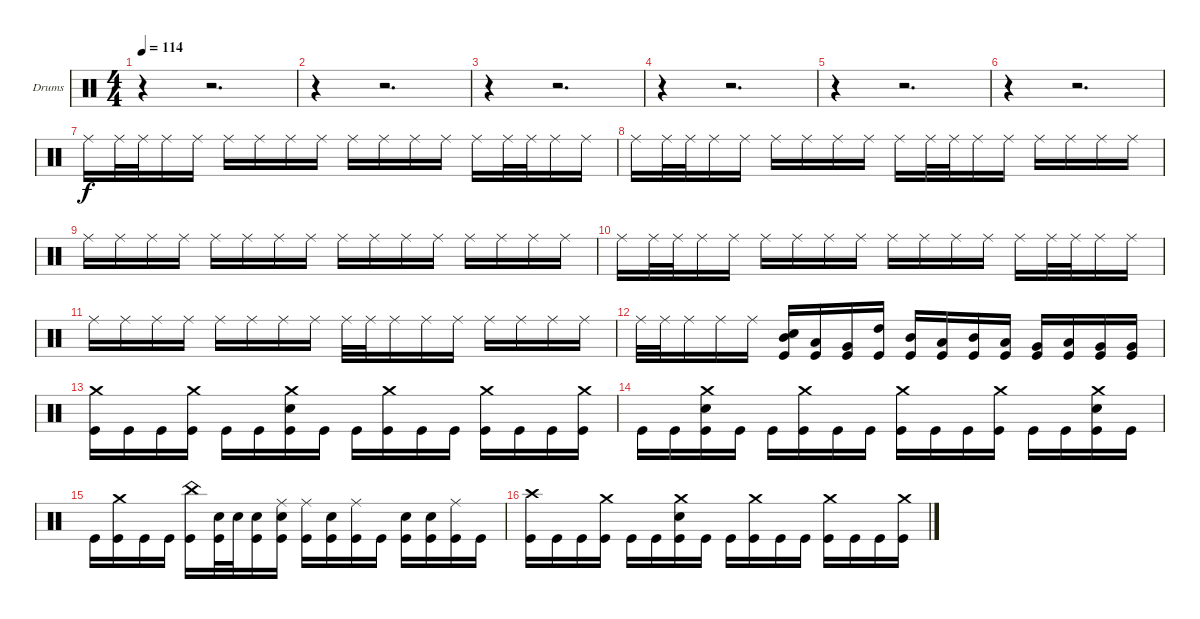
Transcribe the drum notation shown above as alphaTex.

\bracketExtendMode groupsimilarinstruments
\firstSystemTrackNameOrientation horizontal
\otherSystemsTrackNameOrientation horizontal
\track ("Drumkit" "Drums") {instrument percussion}
\staff {score}
\articulation defaults
\ts (4 4)
\tempo 114
\clef neutral
\ks c
r.4{dy f} r.2{d} |
r.4 r.2{d} |
r.4 r.2{d} |
r.4 r.2{d} |
r.4 r.2{d} |
r.4 r.2{d} |
"Ride (middle)".16 "Ride (middle)".32 "Ride (middle)".32 "Ride (middle)".16 "Ride (middle)".16 "Ride (middle)".16 "Ride (middle)".16 "Ride (middle)".16 "Ride (middle)".16 "Ride (middle)".16 "Ride (middle)".16 "Ride (middle)".16 "Ride (middle)".16 "Ride (middle)".16 "Ride (middle)".32 "Ride (middle)".32 "Ride (middle)".16 "Ride (middle)".16 |
"Ride (middle)".16 "Ride (middle)".32 "Ride (middle)".32 "Ride (middle)".16 "Ride (middle)".16 "Ride (middle)".16 "Ride (middle)".16 "Ride (middle)".16 "Ride (middle)".16 "Ride (middle)".16 "Ride (middle)".32 "Ride (middle)".32 "Ride (middle)".16 "Ride (middle)".16 "Ride (middle)".16 "Ride (middle)".16 "Ride (middle)".16 "Ride (middle)".16 |
"Ride (middle)".16 "Ride (middle)".16 "Ride (middle)".16 "Ride (middle)".16 "Ride (middle)".16 "Ride (middle)".16 "Ride (middle)".16 "Ride (middle)".16 "Ride (middle)".16 "Ride (middle)".16 "Ride (middle)".16 "Ride (middle)".16 "Ride (middle)".16 "Ride (middle)".16 "Ride (middle)".16 "Ride (middle)".16 |
"Ride (middle)".16 "Ride (middle)".32 "Ride (middle)".32 "Ride (middle)".16 "Ride (middle)".16 "Ride (middle)".16 "Ride (middle)".16 "Ride (middle)".16 "Ride (middle)".16 "Ride (middle)".16 "Ride (middle)".16 "Ride (middle)".16 "Ride (middle)".16 "Ride (middle)".16 "Ride (middle)".32 "Ride (middle)".32 "Ride (middle)".16 "Ride (middle)".16 |
"Ride (middle)".16 "Ride (middle)".16 "Ride (middle)".16 "Ride (middle)".16 "Ride (middle)".16 "Ride (middle)".16 "Ride (middle)".16 "Ride (middle)".16 "Ride (middle)".32 "Ride (middle)".32 "Ride (middle)".16 "Ride (middle)".16 "Ride (middle)".16 "Ride (middle)".16 "Ride (middle)".16 "Ride (middle)".16 "Ride (middle)".16 |
"Ride (middle)".32 "Ride (middle)".32 "Ride (middle)".16 "Ride (middle)".16 "Ride (middle)".16 ("Snare (hit) 2" "Mid Tom (hit)" "Kick (hit)").16 ("Low Tom (hit)" "Kick (hit)").16 ("Very Low Tom (hit)" "Kick (hit)").16 ("High Tom (hit)" "Kick (hit)").16 ("Mid Tom (hit)" "Kick (hit)").16 ("Low Tom (hit)" "Kick (hit)").16 ("Mid Tom (hit)" "Kick (hit)").16 ("Low Tom (hit)" "Kick (hit)").16 ("Very Low Tom (hit)" "Kick (hit)").16 ("Low Tom (hit)" "Kick (hit)").16 ("Very Low Tom (hit)" "Kick (hit)").16 ("Very Low Tom (hit)" "Kick (hit)").16 |
("Crash medium (hit)" "Kick (hit)").16 "Kick (hit)".16 "Kick (hit)".16 ("Crash medium (hit)" "Kick (hit)").16 "Kick (hit)".16 "Kick (hit)".16 ("Crash medium (hit)" "Snare (hit) 2" "Kick (hit)").16 "Kick (hit)".16 "Kick (hit)".16 ("Crash medium (hit)" "Kick (hit)").16 "Kick (hit)".16 "Kick (hit)".16 ("Crash medium (hit)" "Kick (hit)").16 "Kick (hit)".16 "Kick (hit)".16 ("Crash medium (hit)" "Kick (hit)").16 |
"Kick (hit)".16 "Kick (hit)".16 ("Crash medium (hit)" "Snare (hit) 2" "Kick (hit)").16 "Kick (hit)".16 "Kick (hit)".16 ("Crash medium (hit)" "Kick (hit)").16 "Kick (hit)".16 "Kick (hit)".16 ("Crash medium (hit)" "Kick (hit)").16 "Kick (hit)".16 "Kick (hit)".16 ("Crash medium (hit)" "Kick (hit)").16 "Kick (hit)".16 "Kick (hit)".16 ("Crash medium (hit)" "Snare (hit) 2" "Kick (hit)").16 "Kick (hit)".16 |
"Kick (hit)".16 ("Crash medium (hit)" "Kick (hit)").16 "Kick (hit)".16 "Kick (hit)".16 ("China (hit)" "Kick (hit)").16 ("Snare (hit) 2" "Kick (hit)").32 "Snare (hit) 2".32 ("Snare (hit) 2" "Kick (hit)").16 ("Ride (middle)" "Snare (hit) 2" "Kick (hit)").16 ("Ride (middle)" "Kick (hit)").16 ("Snare (hit) 2" "Kick (hit)").16 ("Ride (middle)" "Kick (hit)").16 "Kick (hit)".16 ("Snare (hit) 2" "Kick (hit)").16 ("Snare (hit) 2" "Kick (hit)").16 ("Ride (middle)" "Kick (hit)").16 "Kick (hit)".16 |
("Crash high (hit)" "Kick (hit)").16 "Kick (hit)".16 "Kick (hit)".16 ("Crash medium (hit)" "Kick (hit)").16 "Kick (hit)".16 "Kick (hit)".16 ("Crash medium (hit)" "Snare (hit) 2" "Kick (hit)").16 "Kick (hit)".16 "Kick (hit)".16 ("Crash medium (hit)" "Kick (hit)").16 "Kick (hit)".16 "Kick (hit)".16 ("Crash medium (hit)" "Kick (hit)").16 "Kick (hit)".16 "Kick (hit)".16 ("Crash medium (hit)" "Kick (hit)").16
